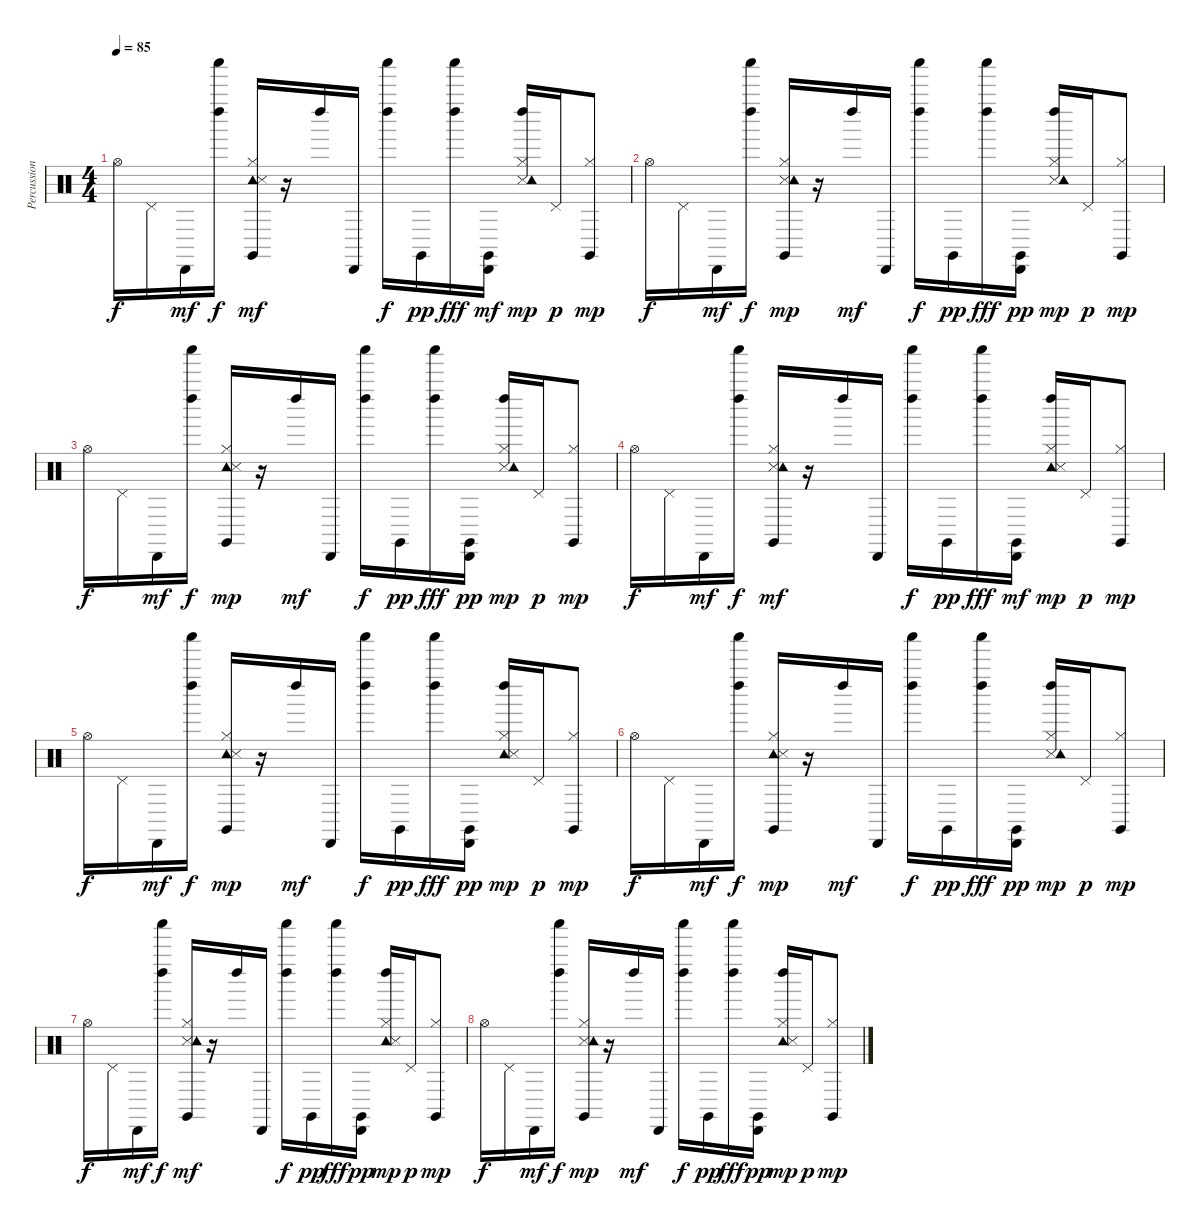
\track ("Percussion" "Percussion") {instrument percussion}
\staff {score}
\articulation defaults
\ts (4 4)
\tempo 85
\clef neutral
\ks c "Hi-Hat (open)".16{dy f} "Pedal Hi-Hat (hit)".16 "Cabasa (hit)".16{dy mf}
("Shaker (hit)" "Left Maraca (hit)").16{dy f} ("Claves (hit)" "Hi-Hat (closed)" "Tambourine (hit)" "Snare (side stick) 3").16{dy mf} r.16 "Left Maraca (hit)".16 "Cabasa (hit)".16 ("Left Maraca (hit)" "Shaker (hit)").16{dy f} "Claves (hit)".16{dy pp} ("Left Maraca (hit)" "Shaker (hit)").16{dy fff} ("Claves (hit)" "Cabasa (hit)").16{dy mf} ("Snare (side stick) 3" "Tambourine (hit)" "Left Maraca (hit)" "Hi-Hat (closed)").16{dy mp} "Pedal Hi-Hat (hit)".16{dy p} ("Claves (hit)" "Hi-Hat (closed)").8{dy mp} |
"Hi-Hat (open)".16{dy f} "Pedal Hi-Hat (hit)".16 "Cabasa (hit)".16{dy mf} ("Shaker (hit)" "Left Maraca (hit)").16{dy f} ("Claves (hit)" "Snare (side stick) 3" "Tambourine (hit)" "Hi-Hat (closed)").16{dy mp} r.16 "Left Maraca (hit)".16{dy mf} "Cabasa (hit)".16 ("Left Maraca (hit)" "Shaker (hit)").16{dy f} "Claves (hit)".16{dy pp} ("Left Maraca (hit)" "Shaker (hit)").16{dy fff} ("Cabasa (hit)" "Claves (hit)").16{dy pp} ("Hi-Hat (closed)" "Snare (side stick) 3" "Tambourine (hit)" "Left Maraca (hit)").16{dy mp} "Pedal Hi-Hat (hit)".16{dy p} ("Hi-Hat (closed)" "Claves (hit)").8{dy mp} |
"Hi-Hat (open)".16{dy f} "Pedal Hi-Hat (hit)".16 "Cabasa (hit)".16{dy mf} ("Left Maraca (hit)" "Shaker (hit)").16{dy f} ("Tambourine (hit)" "Hi-Hat (closed)" "Claves (hit)" "Snare (side stick) 3").16{dy mp} r.16 "Left Maraca (hit)".16{dy mf} "Cabasa (hit)".16 ("Shaker (hit)" "Left Maraca (hit)").16{dy f} "Claves (hit)".16{dy pp} ("Left Maraca (hit)" "Shaker (hit)").16{dy fff} ("Cabasa (hit)" "Claves (hit)").16{dy pp} ("Snare (side stick) 3" "Hi-Hat (closed)" "Tambourine (hit)" "Left Maraca (hit)").16{dy mp} "Pedal Hi-Hat (hit)".16{dy p} ("Hi-Hat (closed)" "Claves (hit)").8{dy mp} |
"Hi-Hat (open)".16{dy f} "Pedal Hi-Hat (hit)".16 "Cabasa (hit)".16{dy mf} ("Shaker (hit)" "Left Maraca (hit)").16{dy f} ("Claves (hit)" "Hi-Hat (closed)" "Snare (side stick) 3" "Tambourine (hit)").16{dy mf} r.16 "Left Maraca (hit)".16 "Cabasa (hit)".16 ("Left Maraca (hit)" "Shaker (hit)").16{dy f} "Claves (hit)".16{dy pp} ("Left Maraca (hit)" "Shaker (hit)").16{dy fff} ("Claves (hit)" "Cabasa (hit)").16{dy mf} ("Hi-Hat (closed)" "Tambourine (hit)" "Left Maraca (hit)" "Snare (side stick) 3").16{dy mp} "Pedal Hi-Hat (hit)".16{dy p} ("Hi-Hat (closed)" "Claves (hit)").8{dy mp} |
"Hi-Hat (open)".16{dy f} "Pedal Hi-Hat (hit)".16 "Cabasa (hit)".16{dy mf} ("Left Maraca (hit)" "Shaker (hit)").16{dy f} ("Hi-Hat (closed)" "Tambourine (hit)" "Snare (side stick) 3" "Claves (hit)").16{dy mp} r.16 "Left Maraca (hit)".16{dy mf} "Cabasa (hit)".16 ("Left Maraca (hit)" "Shaker (hit)").16{dy f} "Claves (hit)".16{dy pp} ("Shaker (hit)" "Left Maraca (hit)").16{dy fff} ("Cabasa (hit)" "Claves (hit)").16{dy pp} ("Tambourine (hit)" "Left Maraca (hit)" "Hi-Hat (closed)" "Snare (side stick) 3").16{dy mp} "Pedal Hi-Hat (hit)".16{dy p} ("Claves (hit)" "Hi-Hat (closed)").8{dy mp} |
"Hi-Hat (open)".16{dy f} "Pedal Hi-Hat (hit)".16 "Cabasa (hit)".16{dy mf} ("Shaker (hit)" "Left Maraca (hit)").16{dy f} ("Claves (hit)" "Tambourine (hit)" "Snare (side stick) 3" "Hi-Hat (closed)").16{dy mp} r.16 "Left Maraca (hit)".16{dy mf} "Cabasa (hit)".16 ("Shaker (hit)" "Left Maraca (hit)").16{dy f} "Claves (hit)".16{dy pp} ("Shaker (hit)" "Left Maraca (hit)").16{dy fff} ("Cabasa (hit)" "Claves (hit)").16{dy pp} ("Left Maraca (hit)" "Snare (side stick) 3" "Tambourine (hit)" "Hi-Hat (closed)").16{dy mp} "Pedal Hi-Hat (hit)".16{dy p} ("Claves (hit)" "Hi-Hat (closed)").8{dy mp} |
"Hi-Hat (open)".16{dy f} "Pedal Hi-Hat (hit)".16 "Cabasa (hit)".16{dy mf} ("Shaker (hit)" "Left Maraca (hit)").16{dy f} ("Snare (side stick) 3" "Hi-Hat (closed)" "Claves (hit)" "Tambourine (hit)").16{dy mf} r.16 "Left Maraca (hit)".16 "Cabasa (hit)".16 ("Shaker (hit)" "Left Maraca (hit)").16{dy f} "Claves (hit)".16{dy pp} ("Left Maraca (hit)" "Shaker (hit)").16{dy fff} ("Cabasa (hit)" "Claves (hit)").16{dy pp} ("Tambourine (hit)" "Snare (side stick) 3" "Hi-Hat (closed)" "Left Maraca (hit)").16{dy mp} "Pedal Hi-Hat (hit)".16{dy p} ("Hi-Hat (closed)" "Claves (hit)").8{dy mp} |
"Hi-Hat (open)".16{dy f} "Pedal Hi-Hat (hit)".16 "Cabasa (hit)".16{dy mf} ("Left Maraca (hit)" "Shaker (hit)").16{dy f} ("Snare (side stick) 3" "Claves (hit)" "Tambourine (hit)" "Hi-Hat (closed)").16{dy mp} r.16 "Left Maraca (hit)".16{dy mf} "Cabasa (hit)".16 ("Left Maraca (hit)" "Shaker (hit)").16{dy f} "Claves (hit)".16{dy pp} ("Left Maraca (hit)" "Shaker (hit)").16{dy fff} ("Cabasa (hit)" "Claves (hit)").16{dy pp} ("Hi-Hat (closed)" "Tambourine (hit)" "Snare (side stick) 3" "Left Maraca (hit)").16{dy mp} "Pedal Hi-Hat (hit)".16{dy p} ("Claves (hit)" "Hi-Hat (closed)").8{dy mp}
